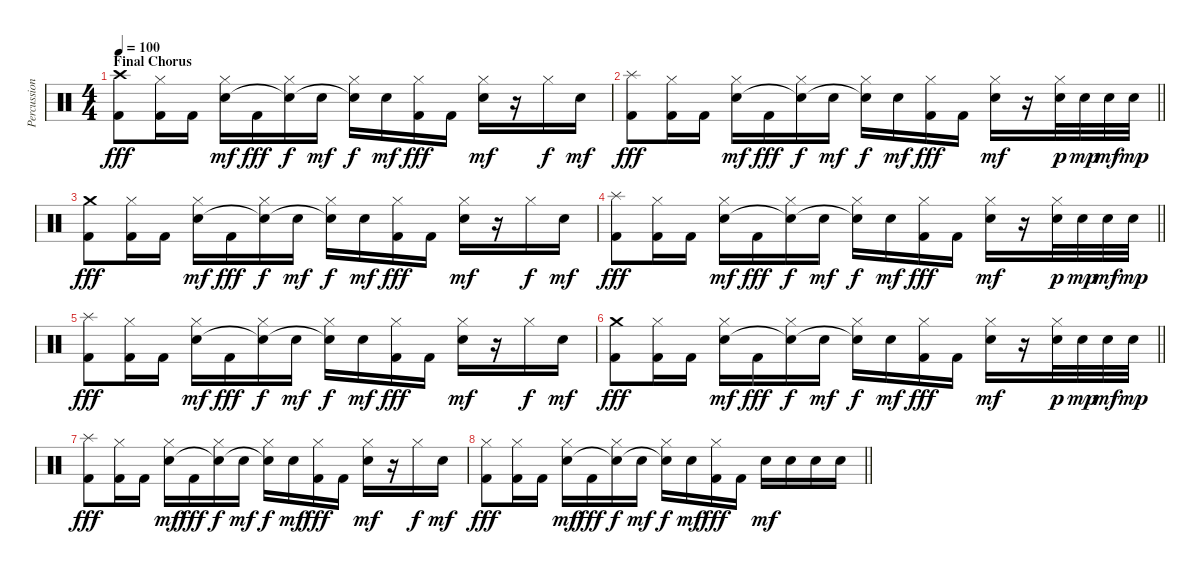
\track ("Percussioni" "Percussion") {instrument percussion}
\staff {score}
\articulation defaults
\ts (4 4)
\section ("" "Final Chorus")
\tempo 100
\clef neutral
\ks c
("Crash high (hit)" "Kick (hit) 2").8{dy fff} ("Hi-Hat (closed)" "Kick (hit) 2").16 "Kick (hit) 2".16 ("Hi-Hat (closed)" "Snare (hit) 2").16{dy mf} "Kick (hit) 2".16{dy fff} ("Hi-Hat (closed)" "Snare (hit)"{t}).16{dy f} "Snare (hit) 2".16{dy mf} ("Hi-Hat (closed)" "Snare (hit)"{t}).16{dy f} "Snare (hit) 2".16{dy mf} ("Hi-Hat (closed)" "Kick (hit) 2").16{dy fff} "Kick (hit) 2".16 ("Hi-Hat (closed)" "Snare (hit) 2").16{dy mf} r.16 "Hi-Hat (closed)".16{dy f} "Snare (hit) 2".16{dy mf} |
\barLineRight lightlight
("Splash (hit)" "Kick (hit) 2").8{dy fff} ("Hi-Hat (closed)" "Kick (hit) 2").16 "Kick (hit) 2".16 ("Hi-Hat (closed)" "Snare (hit) 2").16{dy mf} "Kick (hit) 2".16{dy fff} ("Hi-Hat (closed)" "Snare (hit)"{t}).16{dy f} "Snare (hit) 2".16{dy mf} ("Hi-Hat (closed)" "Snare (hit)"{t}).16{dy f} "Snare (hit) 2".16{dy mf} ("Hi-Hat (closed)" "Kick (hit) 2").16{dy fff} "Kick (hit) 2".16 ("Hi-Hat (closed)" "Snare (hit) 2").16{dy mf} r.16 ("Hi-Hat (closed)" "Snare (hit) 2").32{dy p} "Snare (hit) 2".32{dy mp} "Snare (hit) 2".32{dy mf} "Snare (hit) 2".32{dy mp} |
("Crash medium (hit)" "Kick (hit) 2").8{dy fff} ("Hi-Hat (closed)" "Kick (hit) 2").16 "Kick (hit) 2".16 ("Hi-Hat (closed)" "Snare (hit) 2").16{dy mf} "Kick (hit) 2".16{dy fff} ("Hi-Hat (closed)" "Snare (hit)"{t}).16{dy f} "Snare (hit) 2".16{dy mf} ("Hi-Hat (closed)" "Snare (hit)"{t}).16{dy f} "Snare (hit) 2".16{dy mf} ("Hi-Hat (closed)" "Kick (hit) 2").16{dy fff} "Kick (hit) 2".16 ("Hi-Hat (closed)" "Snare (hit) 2").16{dy mf} r.16 "Hi-Hat (closed)".16{dy f} "Snare (hit) 2".16{dy mf} |
\barLineRight lightlight
("Splash (hit)" "Kick (hit) 2").8{dy fff} ("Hi-Hat (closed)" "Kick (hit) 2").16 "Kick (hit) 2".16 ("Hi-Hat (closed)" "Snare (hit) 2").16{dy mf} "Kick (hit) 2".16{dy fff} ("Hi-Hat (closed)" "Snare (hit)"{t}).16{dy f} "Snare (hit) 2".16{dy mf} ("Hi-Hat (closed)" "Snare (hit)"{t}).16{dy f} "Snare (hit) 2".16{dy mf} ("Hi-Hat (closed)" "Kick (hit) 2").16{dy fff} "Kick (hit) 2".16 ("Hi-Hat (closed)" "Snare (hit) 2").16{dy mf} r.16 ("Hi-Hat (closed)" "Snare (hit) 2").32{dy p} "Snare (hit) 2".32{dy mp} "Snare (hit) 2".32{dy mf} "Snare (hit) 2".32{dy mp} |
("Splash (hit)" "Kick (hit) 2").8{dy fff} ("Hi-Hat (closed)" "Kick (hit) 2").16 "Kick (hit) 2".16 ("Hi-Hat (closed)" "Snare (hit) 2").16{dy mf} "Kick (hit) 2".16{dy fff} ("Hi-Hat (closed)" "Snare (hit)"{t}).16{dy f} "Snare (hit) 2".16{dy mf} ("Hi-Hat (closed)" "Snare (hit)"{t}).16{dy f} "Snare (hit) 2".16{dy mf} ("Hi-Hat (closed)" "Kick (hit) 2").16{dy fff} "Kick (hit) 2".16 ("Hi-Hat (closed)" "Snare (hit) 2").16{dy mf} r.16 "Hi-Hat (closed)".16{dy f} "Snare (hit) 2".16{dy mf} |
\barLineRight lightlight
("Crash medium (hit)" "Kick (hit) 2").8{dy fff} ("Hi-Hat (closed)" "Kick (hit) 2").16 "Kick (hit) 2".16 ("Hi-Hat (closed)" "Snare (hit) 2").16{dy mf} "Kick (hit) 2".16{dy fff} ("Hi-Hat (closed)" "Snare (hit)"{t}).16{dy f} "Snare (hit) 2".16{dy mf} ("Hi-Hat (closed)" "Snare (hit)"{t}).16{dy f} "Snare (hit) 2".16{dy mf} ("Hi-Hat (closed)" "Kick (hit) 2").16{dy fff} "Kick (hit) 2".16 ("Hi-Hat (closed)" "Snare (hit) 2").16{dy mf} r.16 ("Hi-Hat (closed)" "Snare (hit) 2").32{dy p} "Snare (hit) 2".32{dy mp} "Snare (hit) 2".32{dy mf} "Snare (hit) 2".32{dy mp} |
("Splash (hit)" "Kick (hit) 2").8{dy fff} ("Hi-Hat (closed)" "Kick (hit) 2").16 "Kick (hit) 2".16 ("Hi-Hat (closed)" "Snare (hit) 2").16{dy mf} "Kick (hit) 2".16{dy fff} ("Hi-Hat (closed)" "Snare (hit)"{t}).16{dy f} "Snare (hit) 2".16{dy mf} ("Hi-Hat (closed)" "Snare (hit)"{t}).16{dy f} "Snare (hit) 2".16{dy mf} ("Hi-Hat (closed)" "Kick (hit) 2").16{dy fff} "Kick (hit) 2".16 ("Hi-Hat (closed)" "Snare (hit) 2").16{dy mf} r.16 "Hi-Hat (closed)".16{dy f} "Snare (hit) 2".16{dy mf} |
\barLineRight lightlight
("Hi-Hat (closed)" "Kick (hit) 2").8{dy fff} ("Hi-Hat (closed)" "Kick (hit) 2").16 "Kick (hit) 2".16 ("Hi-Hat (closed)" "Snare (hit) 2").16{dy mf} "Kick (hit) 2".16{dy fff} ("Hi-Hat (closed)" "Snare (hit)"{t}).16{dy f} "Snare (hit) 2".16{dy mf} ("Hi-Hat (closed)" "Snare (hit)"{t}).16{dy f} "Snare (hit) 2".16{dy mf} ("Hi-Hat (closed)" "Kick (hit) 2").16{dy fff} "Kick (hit) 2".16 "Snare (hit) 2".16{dy mf} "Snare (hit) 2".16 "Snare (hit) 2".16 "Snare (hit) 2".16
